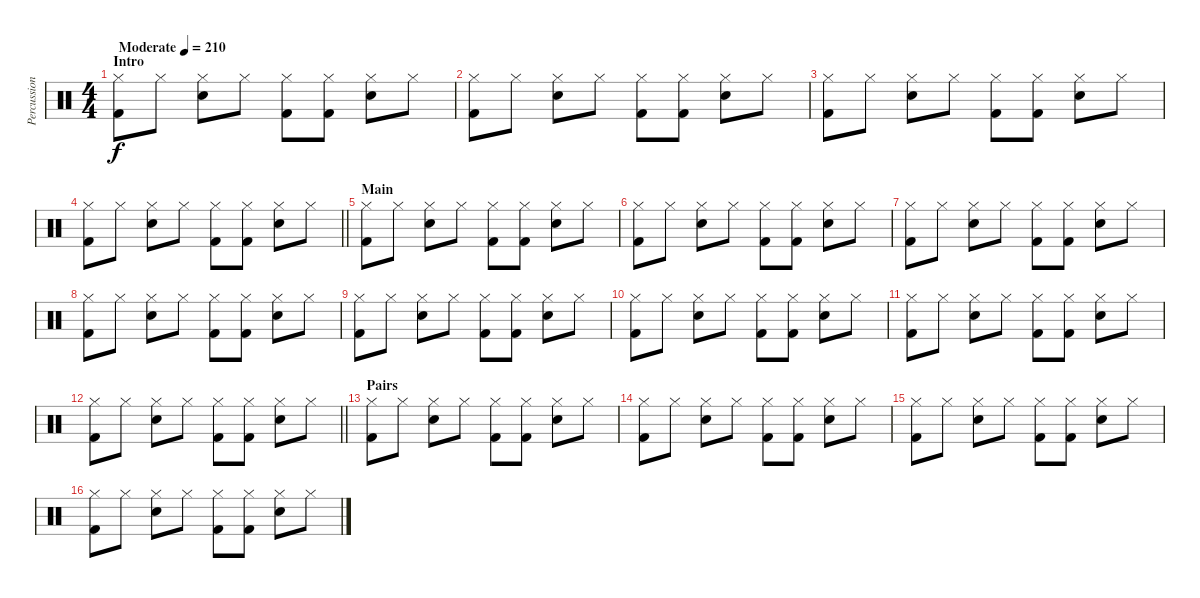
\track ("Percussion" "Percussion") {instrument percussion}
\staff {score}
\articulation defaults
\ts (4 4)
\section ("" "Intro")
\tempo (210 "Moderate")
\clef neutral
\ks c
("Hi-Hat (closed)" "Kick (hit) 2").8{dy f} "Hi-Hat (closed)".8 ("Hi-Hat (closed)" "Snare (hit) 2").8 "Hi-Hat (closed)".8 ("Hi-Hat (closed)" "Kick (hit) 2").8 ("Hi-Hat (closed)" "Kick (hit) 2").8 ("Hi-Hat (closed)" "Snare (hit) 2").8 "Hi-Hat (closed)".8 |
("Hi-Hat (closed)" "Kick (hit) 2").8 "Hi-Hat (closed)".8 ("Hi-Hat (closed)" "Snare (hit) 2").8 "Hi-Hat (closed)".8 ("Hi-Hat (closed)" "Kick (hit) 2").8 ("Hi-Hat (closed)" "Kick (hit) 2").8 ("Hi-Hat (closed)" "Snare (hit) 2").8 "Hi-Hat (closed)".8 |
("Hi-Hat (closed)" "Kick (hit) 2").8 "Hi-Hat (closed)".8 ("Hi-Hat (closed)" "Snare (hit) 2").8 "Hi-Hat (closed)".8 ("Hi-Hat (closed)" "Kick (hit) 2").8 ("Hi-Hat (closed)" "Kick (hit) 2").8 ("Hi-Hat (closed)" "Snare (hit) 2").8 "Hi-Hat (closed)".8 |
\barLineRight lightlight
("Hi-Hat (closed)" "Kick (hit) 2").8 "Hi-Hat (closed)".8 ("Hi-Hat (closed)" "Snare (hit) 2").8 "Hi-Hat (closed)".8 ("Hi-Hat (closed)" "Kick (hit) 2").8 ("Hi-Hat (closed)" "Kick (hit) 2").8 ("Hi-Hat (closed)" "Snare (hit) 2").8 "Hi-Hat (closed)".8 |
\section ("" "Main")
("Hi-Hat (closed)" "Kick (hit) 2").8 "Hi-Hat (closed)".8 ("Hi-Hat (closed)" "Snare (hit) 2").8 "Hi-Hat (closed)".8 ("Hi-Hat (closed)" "Kick (hit) 2").8 ("Hi-Hat (closed)" "Kick (hit) 2").8 ("Hi-Hat (closed)" "Snare (hit) 2").8 "Hi-Hat (closed)".8 |
("Hi-Hat (closed)" "Kick (hit) 2").8 "Hi-Hat (closed)".8 ("Hi-Hat (closed)" "Snare (hit) 2").8 "Hi-Hat (closed)".8 ("Hi-Hat (closed)" "Kick (hit) 2").8 ("Hi-Hat (closed)" "Kick (hit) 2").8 ("Hi-Hat (closed)" "Snare (hit) 2").8 "Hi-Hat (closed)".8 |
("Hi-Hat (closed)" "Kick (hit) 2").8 "Hi-Hat (closed)".8 ("Hi-Hat (closed)" "Snare (hit) 2").8 "Hi-Hat (closed)".8 ("Hi-Hat (closed)" "Kick (hit) 2").8 ("Hi-Hat (closed)" "Kick (hit) 2").8 ("Hi-Hat (closed)" "Snare (hit) 2").8 "Hi-Hat (closed)".8 |
("Hi-Hat (closed)" "Kick (hit) 2").8 "Hi-Hat (closed)".8 ("Hi-Hat (closed)" "Snare (hit) 2").8 "Hi-Hat (closed)".8 ("Hi-Hat (closed)" "Kick (hit) 2").8 ("Hi-Hat (closed)" "Kick (hit) 2").8 ("Hi-Hat (closed)" "Snare (hit) 2").8 "Hi-Hat (closed)".8 |
("Hi-Hat (closed)" "Kick (hit) 2").8 "Hi-Hat (closed)".8 ("Hi-Hat (closed)" "Snare (hit) 2").8 "Hi-Hat (closed)".8 ("Hi-Hat (closed)" "Kick (hit) 2").8 ("Hi-Hat (closed)" "Kick (hit) 2").8 ("Hi-Hat (closed)" "Snare (hit) 2").8 "Hi-Hat (closed)".8 |
("Hi-Hat (closed)" "Kick (hit) 2").8 "Hi-Hat (closed)".8 ("Hi-Hat (closed)" "Snare (hit) 2").8 "Hi-Hat (closed)".8 ("Hi-Hat (closed)" "Kick (hit) 2").8 ("Hi-Hat (closed)" "Kick (hit) 2").8 ("Hi-Hat (closed)" "Snare (hit) 2").8 "Hi-Hat (closed)".8 |
("Hi-Hat (closed)" "Kick (hit) 2").8 "Hi-Hat (closed)".8 ("Hi-Hat (closed)" "Snare (hit) 2").8 "Hi-Hat (closed)".8 ("Hi-Hat (closed)" "Kick (hit) 2").8 ("Hi-Hat (closed)" "Kick (hit) 2").8 ("Hi-Hat (closed)" "Snare (hit) 2").8 "Hi-Hat (closed)".8 |
\barLineRight lightlight
("Hi-Hat (closed)" "Kick (hit) 2").8 "Hi-Hat (closed)".8 ("Hi-Hat (closed)" "Snare (hit) 2").8 "Hi-Hat (closed)".8 ("Hi-Hat (closed)" "Kick (hit) 2").8 ("Hi-Hat (closed)" "Kick (hit) 2").8 ("Hi-Hat (closed)" "Snare (hit) 2").8 "Hi-Hat (closed)".8 |
\section ("" "Pairs")
("Hi-Hat (closed)" "Kick (hit) 2").8 "Hi-Hat (closed)".8 ("Hi-Hat (closed)" "Snare (hit) 2").8 "Hi-Hat (closed)".8 ("Hi-Hat (closed)" "Kick (hit) 2").8 ("Hi-Hat (closed)" "Kick (hit) 2").8 ("Hi-Hat (closed)" "Snare (hit) 2").8 "Hi-Hat (closed)".8 |
("Hi-Hat (closed)" "Kick (hit) 2").8 "Hi-Hat (closed)".8 ("Hi-Hat (closed)" "Snare (hit) 2").8 "Hi-Hat (closed)".8 ("Hi-Hat (closed)" "Kick (hit) 2").8 ("Hi-Hat (closed)" "Kick (hit) 2").8 ("Hi-Hat (closed)" "Snare (hit) 2").8 "Hi-Hat (closed)".8 |
("Hi-Hat (closed)" "Kick (hit) 2").8 "Hi-Hat (closed)".8 ("Hi-Hat (closed)" "Snare (hit) 2").8 "Hi-Hat (closed)".8 ("Hi-Hat (closed)" "Kick (hit) 2").8 ("Hi-Hat (closed)" "Kick (hit) 2").8 ("Hi-Hat (closed)" "Snare (hit) 2").8 "Hi-Hat (closed)".8 |
("Hi-Hat (closed)" "Kick (hit) 2").8 "Hi-Hat (closed)".8 ("Hi-Hat (closed)" "Snare (hit) 2").8 "Hi-Hat (closed)".8 ("Hi-Hat (closed)" "Kick (hit) 2").8 ("Hi-Hat (closed)" "Kick (hit) 2").8 ("Hi-Hat (closed)" "Snare (hit) 2").8 "Hi-Hat (closed)".8
